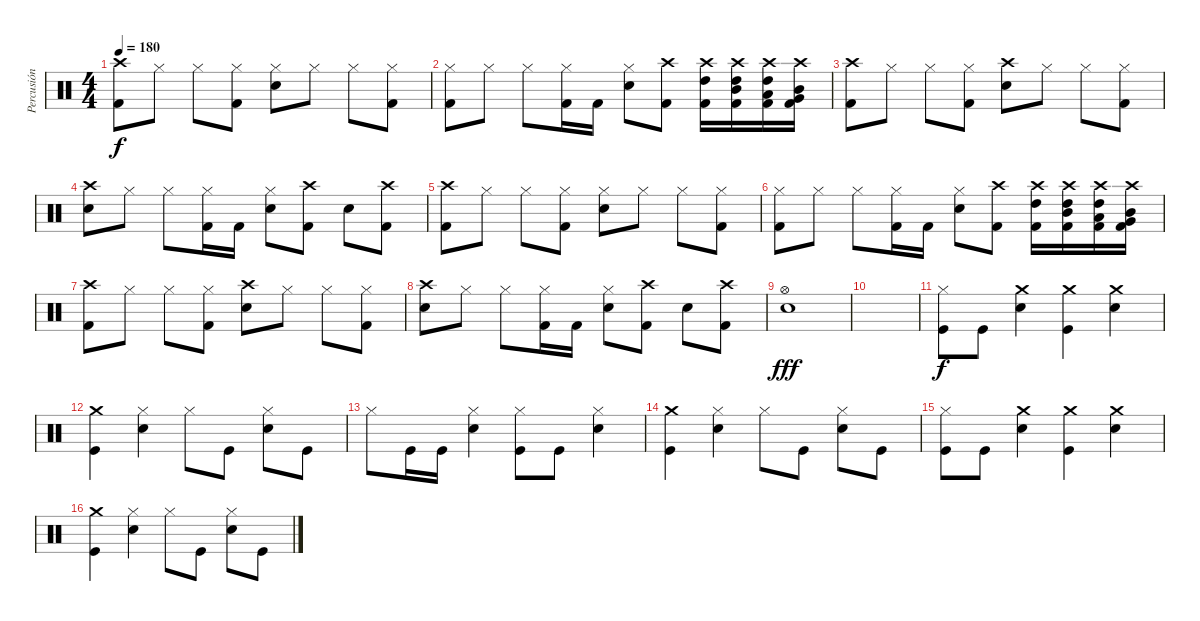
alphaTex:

\track ("Percusión" "Percusión") {instrument percussion}
\staff {score}
\articulation defaults
\ts (4 4)
\tempo 180
\clef neutral
\ks c
("Crash high (hit)" "Kick (hit) 2").8{dy f} "Hi-Hat (closed)".8 "Hi-Hat (closed)".8 ("Hi-Hat (closed)" "Kick (hit) 2").8 ("Hi-Hat (closed)" "Snare (hit) 2").8 "Hi-Hat (closed)".8 "Hi-Hat (closed)".8 ("Hi-Hat (closed)" "Kick (hit) 2").8 |
("Hi-Hat (closed)" "Kick (hit) 2").8 "Hi-Hat (closed)".8 "Hi-Hat (closed)".8 ("Hi-Hat (closed)" "Kick (hit) 2").16 "Kick (hit) 2".16 ("Hi-Hat (closed)" "Snare (hit) 2").8 ("Crash high (hit)" "Kick (hit) 2").8 ("Crash high (hit)" "Kick (hit) 2" "High Tom (hit)").16 ("Crash high (hit)" "Kick (hit) 2" "High Tom (hit)" "Mid Tom (hit)").16 ("Crash high (hit)" "Kick (hit) 2" "High Tom (hit)" "Low Tom (hit)").16 ("Crash high (hit)" "Kick (hit) 2" "Mid Tom (hit)" "Very Low Tom (hit)").16 |
("Crash high (hit)" "Kick (hit) 2").8 "Hi-Hat (closed)".8 "Hi-Hat (closed)".8 ("Hi-Hat (closed)" "Kick (hit) 2").8 ("Crash high (hit)" "Snare (hit) 2").8 "Hi-Hat (closed)".8 "Hi-Hat (closed)".8 ("Hi-Hat (closed)" "Kick (hit) 2").8 |
("Crash high (hit)" "Snare (hit) 2").8 "Hi-Hat (closed)".8 "Hi-Hat (closed)".8 ("Hi-Hat (closed)" "Kick (hit) 2").16 "Kick (hit) 2".16 ("Hi-Hat (closed)" "Snare (hit) 2").8 ("Crash high (hit)" "Kick (hit) 2").8 "Electric Snare (hit)".8 ("Crash high (hit)" "Kick (hit) 2").8 |
("Crash high (hit)" "Kick (hit) 2").8 "Hi-Hat (closed)".8 "Hi-Hat (closed)".8 ("Hi-Hat (closed)" "Kick (hit) 2").8 ("Hi-Hat (closed)" "Snare (hit) 2").8 "Hi-Hat (closed)".8 "Hi-Hat (closed)".8 ("Hi-Hat (closed)" "Kick (hit) 2").8 |
("Hi-Hat (closed)" "Kick (hit) 2").8 "Hi-Hat (closed)".8 "Hi-Hat (closed)".8 ("Hi-Hat (closed)" "Kick (hit) 2").16 "Kick (hit) 2".16 ("Hi-Hat (closed)" "Snare (hit) 2").8 ("Crash high (hit)" "Kick (hit) 2").8 ("Crash high (hit)" "Kick (hit) 2" "High Tom (hit)").16 ("Crash high (hit)" "Kick (hit) 2" "High Tom (hit)" "Mid Tom (hit)").16 ("Crash high (hit)" "Kick (hit) 2" "High Tom (hit)" "Low Tom (hit)").16 ("Crash high (hit)" "Kick (hit) 2" "Mid Tom (hit)" "Very Low Tom (hit)").16 |
("Crash high (hit)" "Kick (hit) 2").8 "Hi-Hat (closed)".8 "Hi-Hat (closed)".8 ("Hi-Hat (closed)" "Kick (hit) 2").8 ("Crash high (hit)" "Snare (hit) 2").8 "Hi-Hat (closed)".8 "Hi-Hat (closed)".8 ("Hi-Hat (closed)" "Kick (hit) 2").8 |
("Crash high (hit)" "Snare (hit) 2").8 "Hi-Hat (closed)".8 "Hi-Hat (closed)".8 ("Hi-Hat (closed)" "Kick (hit) 2").16 "Kick (hit) 2".16 ("Hi-Hat (closed)" "Snare (hit) 2").8 ("Crash high (hit)" "Kick (hit) 2").8 "Electric Snare (hit)".8 ("Crash high (hit)" "Kick (hit) 2").8 |
("Hi-Hat (open)" "Electric Snare (hit)").1{dy fff} |
|
("Kick (hit)" "Hi-Hat (closed)").8{dy f} "Kick (hit)".8 ("Crash medium (hit)" "Snare (hit) 2").4 ("Kick (hit)" "Crash medium (hit)").4 ("Snare (hit) 2" "Crash medium (hit)").4 |
("Kick (hit)" "Crash medium (hit)").4 ("Snare (hit) 2" "Hi-Hat (closed)").4 "Hi-Hat (closed)".8 "Kick (hit)".8 ("Snare (hit) 2" "Hi-Hat (closed)").8 "Kick (hit)".8 |
"Hi-Hat (closed)".8 "Kick (hit)".16 "Kick (hit)".16 ("Snare (hit) 2" "Hi-Hat (closed)").4 ("Kick (hit)" "Hi-Hat (closed)").8 "Kick (hit)".8 ("Snare (hit) 2" "Hi-Hat (closed)").4 |
("Kick (hit)" "Crash medium (hit)").4 ("Hi-Hat (closed)" "Snare (hit) 2").4 "Hi-Hat (closed)".8 "Kick (hit)".8 ("Snare (hit) 2" "Hi-Hat (closed)").8 "Kick (hit)".8 |
("Kick (hit)" "Hi-Hat (closed)").8 "Kick (hit)".8 ("Crash medium (hit)" "Snare (hit) 2").4 ("Kick (hit)" "Crash medium (hit)").4 ("Snare (hit) 2" "Crash medium (hit)").4 |
("Kick (hit)" "Crash medium (hit)").4 ("Snare (hit) 2" "Hi-Hat (closed)").4 "Hi-Hat (closed)".8 "Kick (hit)".8 ("Snare (hit) 2" "Hi-Hat (closed)").8 "Kick (hit)".8
